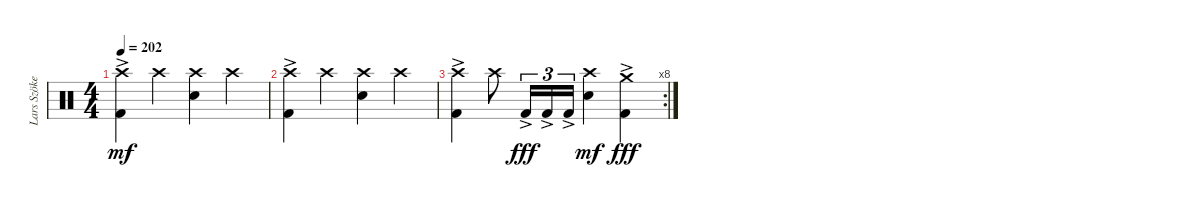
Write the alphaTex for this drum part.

\track ("Lars Szöke" "Lars Szöke") {instrument percussion}
\staff {score}
\articulation defaults
\ts (4 4)
\tempo 202
\clef neutral
\ks c
("Kick (hit) 2"{ac} "Crash high (hit)"{ac}).4{dy mf} "Crash high (hit)".4 ("Snare (hit) 2" "Crash high (hit)").4 "Crash high (hit)".4 |
("Kick (hit) 2"{ac} "Crash high (hit)"{ac}).4 "Crash high (hit)".4 ("Snare (hit) 2" "Crash high (hit)").4 "Crash high (hit)".4 |
\rc 8
("Kick (hit) 2"{ac} "Crash high (hit)"{ac}).4 "Crash high (hit)".8 "Kick (hit) 2"{ac}.16{tu (3 2) dy fff} "Kick (hit) 2"{ac}.16{tu (3 2)} "Kick (hit) 2"{ac}.16{tu (3 2)} ("Snare (hit) 2" "Crash high (hit)").4{dy mf} ("Kick (hit) 2"{ac} "Crash medium (hit)"{ac}).4{dy fff}
